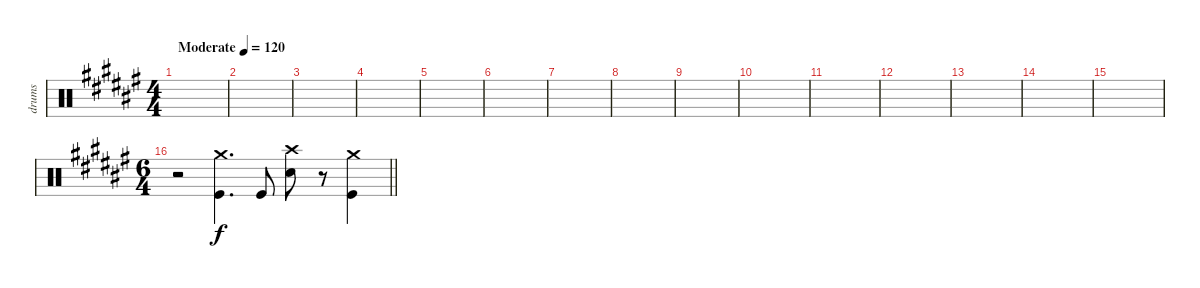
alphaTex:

\track ("drums" "drums") {instrument percussion}
\staff {score}
\articulation defaults
\ts (4 4)
\tempo (120 "Moderate")
\clef neutral
\ks f#
|
|
|
|
|
|
|
|
|
|
|
|
|
|
|
\ts (6 4)
\barLineRight lightlight
r.2 ("Crash medium (hit)" "Kick (hit)").4{d} "Kick (hit)".8 ("Crash high (hit)" "Snare (hit) 2").8 r.8 ("Crash medium (hit)" "Kick (hit)").4
